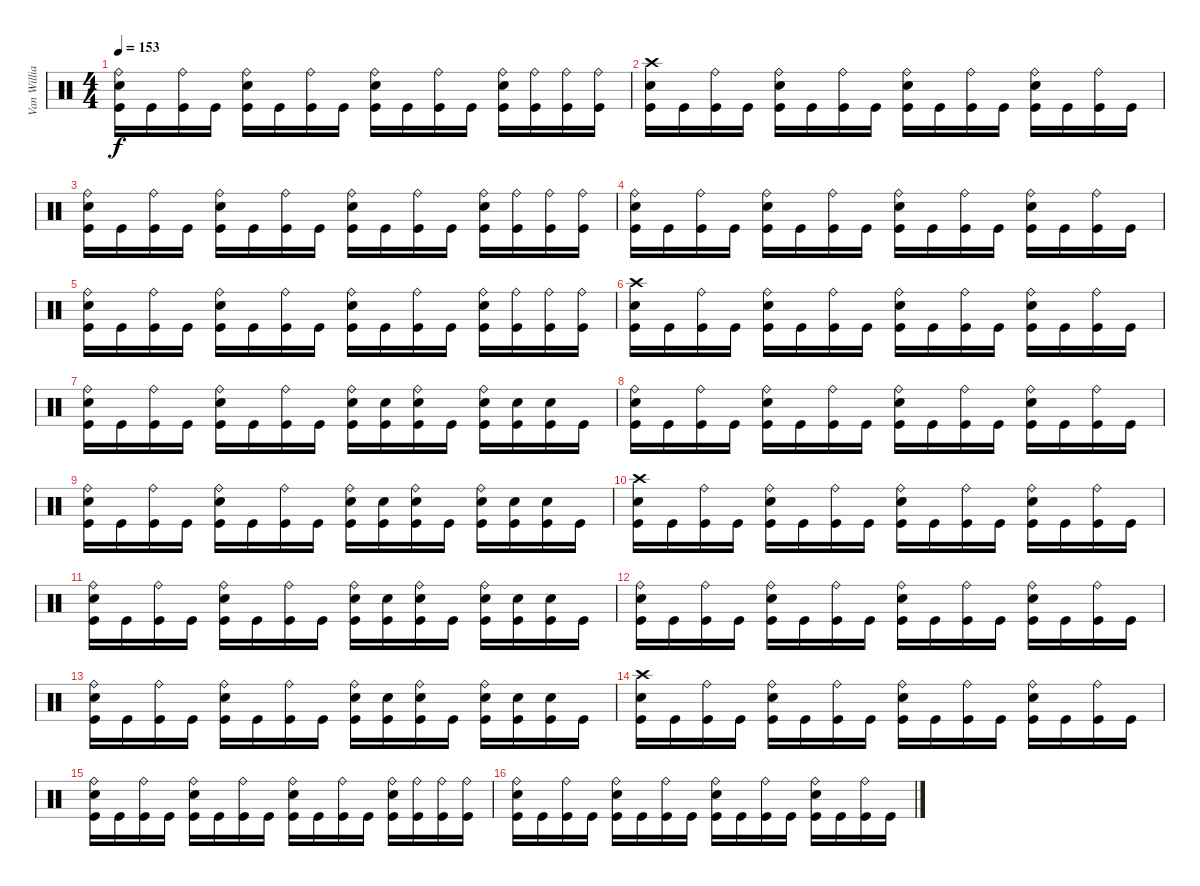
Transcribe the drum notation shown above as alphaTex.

\track ("Van Williams" "Van Willia") {instrument percussion}
\staff {score}
\articulation defaults
\ts (4 4)
\tempo 153
\clef neutral
\ks c
("Ride (bell)" "Electric Snare (hit)" "Kick (hit)").16{dy f} "Kick (hit)".16 ("Ride (bell)" "Kick (hit)").16 "Kick (hit)".16 ("Ride (bell)" "Electric Snare (hit)" "Kick (hit)").16 "Kick (hit)".16 ("Ride (bell)" "Kick (hit)").16 "Kick (hit)".16 ("Ride (bell)" "Electric Snare (hit)" "Kick (hit)").16 "Kick (hit)".16 ("Ride (bell)" "Kick (hit)").16 "Kick (hit)".16 ("Ride (bell)" "Electric Snare (hit)" "Kick (hit)").16 ("Ride (bell)" "Kick (hit)").16 ("Ride (bell)" "Kick (hit)").16 ("Ride (bell)" "Kick (hit)").16 |
("Crash high (hit)" "Electric Snare (hit)" "Kick (hit)").16 "Kick (hit)".16 ("Ride (bell)" "Kick (hit)").16 "Kick (hit)".16 ("Ride (bell)" "Electric Snare (hit)" "Kick (hit)").16 "Kick (hit)".16 ("Ride (bell)" "Kick (hit)").16 "Kick (hit)".16 ("Ride (bell)" "Electric Snare (hit)" "Kick (hit)").16 "Kick (hit)".16 ("Ride (bell)" "Kick (hit)").16 "Kick (hit)".16 ("Ride (bell)" "Electric Snare (hit)" "Kick (hit)").16 "Kick (hit)".16 ("Ride (bell)" "Kick (hit)").16 "Kick (hit)".16 |
("Ride (bell)" "Electric Snare (hit)" "Kick (hit)").16 "Kick (hit)".16 ("Ride (bell)" "Kick (hit)").16 "Kick (hit)".16 ("Ride (bell)" "Electric Snare (hit)" "Kick (hit)").16 "Kick (hit)".16 ("Ride (bell)" "Kick (hit)").16 "Kick (hit)".16 ("Ride (bell)" "Electric Snare (hit)" "Kick (hit)").16 "Kick (hit)".16 ("Ride (bell)" "Kick (hit)").16 "Kick (hit)".16 ("Ride (bell)" "Electric Snare (hit)" "Kick (hit)").16 ("Ride (bell)" "Kick (hit)").16 ("Ride (bell)" "Kick (hit)").16 ("Ride (bell)" "Kick (hit)").16 |
("Ride (bell)" "Electric Snare (hit)" "Kick (hit)").16 "Kick (hit)".16 ("Ride (bell)" "Kick (hit)").16 "Kick (hit)".16 ("Ride (bell)" "Electric Snare (hit)" "Kick (hit)").16 "Kick (hit)".16 ("Ride (bell)" "Kick (hit)").16 "Kick (hit)".16 ("Ride (bell)" "Electric Snare (hit)" "Kick (hit)").16 "Kick (hit)".16 ("Ride (bell)" "Kick (hit)").16 "Kick (hit)".16 ("Ride (bell)" "Electric Snare (hit)" "Kick (hit)").16 "Kick (hit)".16 ("Ride (bell)" "Kick (hit)").16 "Kick (hit)".16 |
("Ride (bell)" "Electric Snare (hit)" "Kick (hit)").16 "Kick (hit)".16 ("Ride (bell)" "Kick (hit)").16 "Kick (hit)".16 ("Ride (bell)" "Electric Snare (hit)" "Kick (hit)").16 "Kick (hit)".16 ("Ride (bell)" "Kick (hit)").16 "Kick (hit)".16 ("Ride (bell)" "Electric Snare (hit)" "Kick (hit)").16 "Kick (hit)".16 ("Ride (bell)" "Kick (hit)").16 "Kick (hit)".16 ("Ride (bell)" "Electric Snare (hit)" "Kick (hit)").16 ("Ride (bell)" "Kick (hit)").16 ("Ride (bell)" "Kick (hit)").16 ("Ride (bell)" "Kick (hit)").16 |
("Crash high (hit)" "Electric Snare (hit)" "Kick (hit)").16 "Kick (hit)".16 ("Ride (bell)" "Kick (hit)").16 "Kick (hit)".16 ("Ride (bell)" "Electric Snare (hit)" "Kick (hit)").16 "Kick (hit)".16 ("Ride (bell)" "Kick (hit)").16 "Kick (hit)".16 ("Ride (bell)" "Electric Snare (hit)" "Kick (hit)").16 "Kick (hit)".16 ("Ride (bell)" "Kick (hit)").16 "Kick (hit)".16 ("Ride (bell)" "Electric Snare (hit)" "Kick (hit)").16 "Kick (hit)".16 ("Ride (bell)" "Kick (hit)").16 "Kick (hit)".16 |
("Ride (bell)" "Electric Snare (hit)" "Kick (hit)").16 "Kick (hit)".16 ("Ride (bell)" "Kick (hit)").16 "Kick (hit)".16 ("Ride (bell)" "Electric Snare (hit)" "Kick (hit)").16 "Kick (hit)".16 ("Ride (bell)" "Kick (hit)").16 "Kick (hit)".16 ("Ride (bell)" "Electric Snare (hit)" "Kick (hit)").16 ("Electric Snare (hit)" "Kick (hit)").16 ("Ride (bell)" "Electric Snare (hit)" "Kick (hit)").16 "Kick (hit)".16 ("Ride (bell)" "Electric Snare (hit)" "Kick (hit)").16 ("Electric Snare (hit)" "Kick (hit)").16 ("Electric Snare (hit)" "Kick (hit)").16 "Kick (hit)".16 |
("Ride (bell)" "Electric Snare (hit)" "Kick (hit)").16 "Kick (hit)".16 ("Ride (bell)" "Kick (hit)").16 "Kick (hit)".16 ("Ride (bell)" "Electric Snare (hit)" "Kick (hit)").16 "Kick (hit)".16 ("Ride (bell)" "Kick (hit)").16 "Kick (hit)".16 ("Ride (bell)" "Electric Snare (hit)" "Kick (hit)").16 "Kick (hit)".16 ("Ride (bell)" "Kick (hit)").16 "Kick (hit)".16 ("Ride (bell)" "Electric Snare (hit)" "Kick (hit)").16 "Kick (hit)".16 ("Ride (bell)" "Kick (hit)").16 "Kick (hit)".16 |
("Ride (bell)" "Electric Snare (hit)" "Kick (hit)").16 "Kick (hit)".16 ("Ride (bell)" "Kick (hit)").16 "Kick (hit)".16 ("Ride (bell)" "Electric Snare (hit)" "Kick (hit)").16 "Kick (hit)".16 ("Ride (bell)" "Kick (hit)").16 "Kick (hit)".16 ("Ride (bell)" "Electric Snare (hit)" "Kick (hit)").16 ("Electric Snare (hit)" "Kick (hit)").16 ("Ride (bell)" "Electric Snare (hit)" "Kick (hit)").16 "Kick (hit)".16 ("Ride (bell)" "Electric Snare (hit)" "Kick (hit)").16 ("Electric Snare (hit)" "Kick (hit)").16 ("Electric Snare (hit)" "Kick (hit)").16 "Kick (hit)".16 |
("Crash high (hit)" "Electric Snare (hit)" "Kick (hit)").16 "Kick (hit)".16 ("Ride (bell)" "Kick (hit)").16 "Kick (hit)".16 ("Ride (bell)" "Electric Snare (hit)" "Kick (hit)").16 "Kick (hit)".16 ("Ride (bell)" "Kick (hit)").16 "Kick (hit)".16 ("Ride (bell)" "Electric Snare (hit)" "Kick (hit)").16 "Kick (hit)".16 ("Ride (bell)" "Kick (hit)").16 "Kick (hit)".16 ("Ride (bell)" "Electric Snare (hit)" "Kick (hit)").16 "Kick (hit)".16 ("Ride (bell)" "Kick (hit)").16 "Kick (hit)".16 |
("Ride (bell)" "Electric Snare (hit)" "Kick (hit)").16 "Kick (hit)".16 ("Ride (bell)" "Kick (hit)").16 "Kick (hit)".16 ("Ride (bell)" "Electric Snare (hit)" "Kick (hit)").16 "Kick (hit)".16 ("Ride (bell)" "Kick (hit)").16 "Kick (hit)".16 ("Ride (bell)" "Electric Snare (hit)" "Kick (hit)").16 ("Electric Snare (hit)" "Kick (hit)").16 ("Ride (bell)" "Electric Snare (hit)" "Kick (hit)").16 "Kick (hit)".16 ("Ride (bell)" "Electric Snare (hit)" "Kick (hit)").16 ("Electric Snare (hit)" "Kick (hit)").16 ("Electric Snare (hit)" "Kick (hit)").16 "Kick (hit)".16 |
("Ride (bell)" "Electric Snare (hit)" "Kick (hit)").16 "Kick (hit)".16 ("Ride (bell)" "Kick (hit)").16 "Kick (hit)".16 ("Ride (bell)" "Electric Snare (hit)" "Kick (hit)").16 "Kick (hit)".16 ("Ride (bell)" "Kick (hit)").16 "Kick (hit)".16 ("Ride (bell)" "Electric Snare (hit)" "Kick (hit)").16 "Kick (hit)".16 ("Ride (bell)" "Kick (hit)").16 "Kick (hit)".16 ("Ride (bell)" "Electric Snare (hit)" "Kick (hit)").16 "Kick (hit)".16 ("Ride (bell)" "Kick (hit)").16 "Kick (hit)".16 |
("Ride (bell)" "Electric Snare (hit)" "Kick (hit)").16 "Kick (hit)".16 ("Ride (bell)" "Kick (hit)").16 "Kick (hit)".16 ("Ride (bell)" "Electric Snare (hit)" "Kick (hit)").16 "Kick (hit)".16 ("Ride (bell)" "Kick (hit)").16 "Kick (hit)".16 ("Ride (bell)" "Electric Snare (hit)" "Kick (hit)").16 ("Electric Snare (hit)" "Kick (hit)").16 ("Ride (bell)" "Electric Snare (hit)" "Kick (hit)").16 "Kick (hit)".16 ("Ride (bell)" "Electric Snare (hit)" "Kick (hit)").16 ("Electric Snare (hit)" "Kick (hit)").16 ("Electric Snare (hit)" "Kick (hit)").16 "Kick (hit)".16 |
("Crash high (hit)" "Electric Snare (hit)" "Kick (hit)").16 "Kick (hit)".16 ("Ride (bell)" "Kick (hit)").16 "Kick (hit)".16 ("Ride (bell)" "Electric Snare (hit)" "Kick (hit)").16 "Kick (hit)".16 ("Ride (bell)" "Kick (hit)").16 "Kick (hit)".16 ("Ride (bell)" "Electric Snare (hit)" "Kick (hit)").16 "Kick (hit)".16 ("Ride (bell)" "Kick (hit)").16 "Kick (hit)".16 ("Ride (bell)" "Electric Snare (hit)" "Kick (hit)").16 "Kick (hit)".16 ("Ride (bell)" "Kick (hit)").16 "Kick (hit)".16 |
("Ride (bell)" "Electric Snare (hit)" "Kick (hit)").16 "Kick (hit)".16 ("Ride (bell)" "Kick (hit)").16 "Kick (hit)".16 ("Ride (bell)" "Electric Snare (hit)" "Kick (hit)").16 "Kick (hit)".16 ("Ride (bell)" "Kick (hit)").16 "Kick (hit)".16 ("Ride (bell)" "Electric Snare (hit)" "Kick (hit)").16 "Kick (hit)".16 ("Ride (bell)" "Kick (hit)").16 "Kick (hit)".16 ("Ride (bell)" "Electric Snare (hit)" "Kick (hit)").16 ("Ride (bell)" "Kick (hit)").16 ("Ride (bell)" "Kick (hit)").16 ("Ride (bell)" "Kick (hit)").16 |
("Ride (bell)" "Electric Snare (hit)" "Kick (hit)").16 "Kick (hit)".16 ("Ride (bell)" "Kick (hit)").16 "Kick (hit)".16 ("Ride (bell)" "Electric Snare (hit)" "Kick (hit)").16 "Kick (hit)".16 ("Ride (bell)" "Kick (hit)").16 "Kick (hit)".16 ("Ride (bell)" "Electric Snare (hit)" "Kick (hit)").16 "Kick (hit)".16 ("Ride (bell)" "Kick (hit)").16 "Kick (hit)".16 ("Ride (bell)" "Electric Snare (hit)" "Kick (hit)").16 "Kick (hit)".16 ("Ride (bell)" "Kick (hit)").16 "Kick (hit)".16
